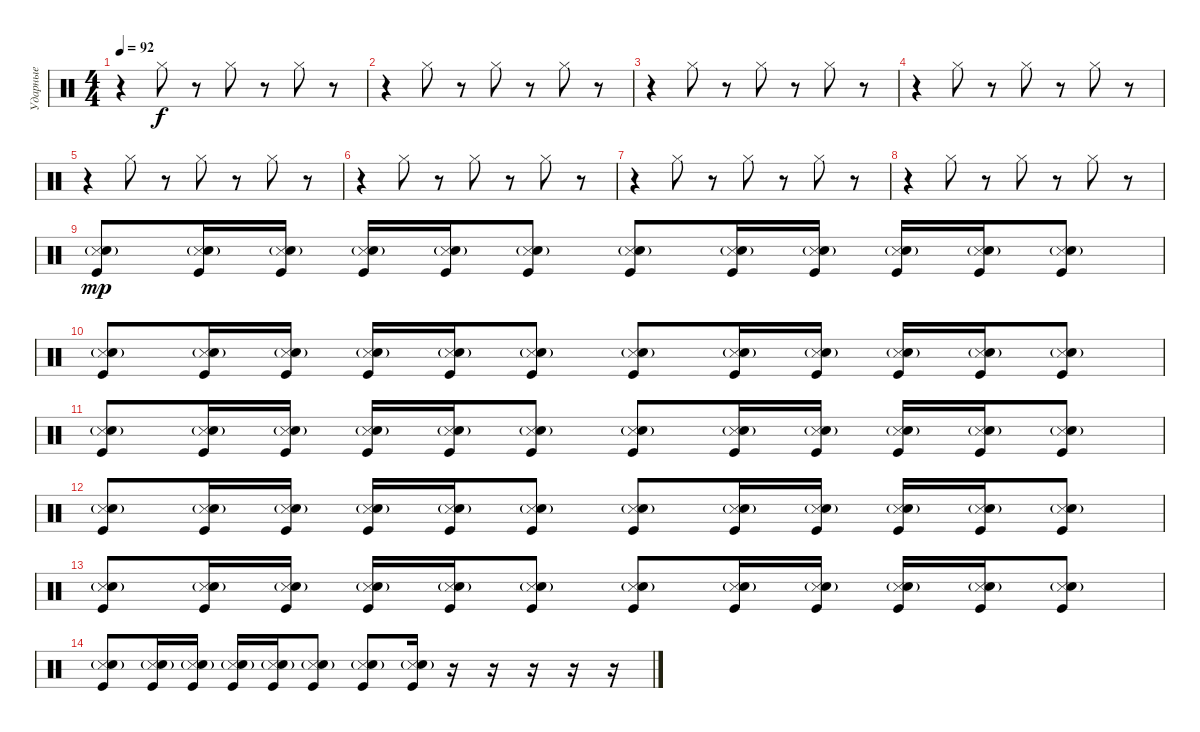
\track ("Ударные" "Ударные") {instrument percussion}
\staff {score}
\articulation defaults
\ts (4 4)
\tempo 92
\clef neutral
\ks c
r.4{dy f} "Hi-Hat (closed)".8 r.8 "Hi-Hat (closed)".8 r.8 "Hi-Hat (closed)".8 r.8 |
r.4 "Hi-Hat (closed)".8 r.8 "Hi-Hat (closed)".8 r.8 "Hi-Hat (closed)".8 r.8 |
r.4 "Hi-Hat (closed)".8 r.8 "Hi-Hat (closed)".8 r.8 "Hi-Hat (closed)".8 r.8 |
r.4 "Hi-Hat (closed)".8 r.8 "Hi-Hat (closed)".8 r.8 "Hi-Hat (closed)".8 r.8 |
r.4 "Hi-Hat (closed)".8 r.8 "Hi-Hat (closed)".8 r.8 "Hi-Hat (closed)".8 r.8 |
r.4 "Hi-Hat (closed)".8 r.8 "Hi-Hat (closed)".8 r.8 "Hi-Hat (closed)".8 r.8 |
r.4 "Hi-Hat (closed)".8 r.8 "Hi-Hat (closed)".8 r.8 "Hi-Hat (closed)".8 r.8 |
r.4 "Hi-Hat (closed)".8 r.8 "Hi-Hat (closed)".8 r.8 "Hi-Hat (closed)".8 r.8 |
("Snare (side stick) 3" "Snare (hit) 2"{g} "Kick (hit)").8{dy mp volume 13} ("Snare (side stick) 3" "Snare (hit) 2"{g} "Kick (hit)").16{volume 13} ("Snare (side stick) 3" "Snare (hit) 2"{g} "Kick (hit)").16{volume 13} ("Snare (side stick) 3" "Snare (hit) 2"{g} "Kick (hit)").16{volume 13} ("Snare (side stick) 3" "Snare (hit) 2"{g} "Kick (hit)").16{volume 13} ("Snare (side stick) 3" "Snare (hit) 2"{g} "Kick (hit)").8{volume 13} ("Snare (side stick) 3" "Snare (hit) 2"{g} "Kick (hit)").8{volume 13} ("Snare (side stick) 3" "Snare (hit) 2"{g} "Kick (hit)").16{volume 13} ("Snare (side stick) 3" "Snare (hit) 2"{g} "Kick (hit)").16{volume 13} ("Snare (side stick) 3" "Snare (hit) 2"{g} "Kick (hit)").16{volume 13} ("Snare (side stick) 3" "Snare (hit) 2"{g} "Kick (hit)").16{volume 13} ("Snare (side stick) 3" "Snare (hit) 2"{g} "Kick (hit)").8{volume 13} |
("Snare (side stick) 3" "Snare (hit) 2"{g} "Kick (hit)").8{volume 13} ("Snare (side stick) 3" "Snare (hit) 2"{g} "Kick (hit)").16{volume 13} ("Snare (side stick) 3" "Snare (hit) 2"{g} "Kick (hit)").16{volume 13} ("Snare (side stick) 3" "Snare (hit) 2"{g} "Kick (hit)").16{volume 13} ("Snare (side stick) 3" "Snare (hit) 2"{g} "Kick (hit)").16{volume 13} ("Snare (side stick) 3" "Snare (hit) 2"{g} "Kick (hit)").8{volume 13} ("Snare (side stick) 3" "Snare (hit) 2"{g} "Kick (hit)").8{volume 13} ("Snare (side stick) 3" "Snare (hit) 2"{g} "Kick (hit)").16{volume 13} ("Snare (side stick) 3" "Snare (hit) 2"{g} "Kick (hit)").16{volume 13} ("Snare (side stick) 3" "Snare (hit) 2"{g} "Kick (hit)").16{volume 13} ("Snare (side stick) 3" "Snare (hit) 2"{g} "Kick (hit)").16{volume 13} ("Snare (side stick) 3" "Snare (hit) 2"{g} "Kick (hit)").8{volume 13} |
("Snare (side stick) 3" "Snare (hit) 2"{g} "Kick (hit)").8{volume 13} ("Snare (side stick) 3" "Snare (hit) 2"{g} "Kick (hit)").16{volume 13} ("Snare (side stick) 3" "Snare (hit) 2"{g} "Kick (hit)").16{volume 13} ("Snare (side stick) 3" "Snare (hit) 2"{g} "Kick (hit)").16{volume 13} ("Snare (side stick) 3" "Snare (hit) 2"{g} "Kick (hit)").16{volume 13} ("Snare (side stick) 3" "Snare (hit) 2"{g} "Kick (hit)").8{volume 13} ("Snare (side stick) 3" "Snare (hit) 2"{g} "Kick (hit)").8{volume 13} ("Snare (side stick) 3" "Snare (hit) 2"{g} "Kick (hit)").16{volume 13} ("Snare (side stick) 3" "Snare (hit) 2"{g} "Kick (hit)").16{volume 13} ("Snare (side stick) 3" "Snare (hit) 2"{g} "Kick (hit)").16{volume 13} ("Snare (side stick) 3" "Snare (hit) 2"{g} "Kick (hit)").16{volume 13} ("Snare (side stick) 3" "Snare (hit) 2"{g} "Kick (hit)").8{volume 13} |
("Snare (side stick) 3" "Snare (hit) 2"{g} "Kick (hit)").8{volume 13} ("Snare (side stick) 3" "Snare (hit) 2"{g} "Kick (hit)").16{volume 13} ("Snare (side stick) 3" "Snare (hit) 2"{g} "Kick (hit)").16{volume 13} ("Snare (side stick) 3" "Snare (hit) 2"{g} "Kick (hit)").16{volume 13} ("Snare (side stick) 3" "Snare (hit) 2"{g} "Kick (hit)").16{volume 13} ("Snare (side stick) 3" "Snare (hit) 2"{g} "Kick (hit)").8{volume 13} ("Snare (side stick) 3" "Snare (hit) 2"{g} "Kick (hit)").8{volume 13} ("Snare (side stick) 3" "Snare (hit) 2"{g} "Kick (hit)").16{volume 13} ("Snare (side stick) 3" "Snare (hit) 2"{g} "Kick (hit)").16{volume 13} ("Snare (side stick) 3" "Snare (hit) 2"{g} "Kick (hit)").16{volume 13} ("Snare (side stick) 3" "Snare (hit) 2"{g} "Kick (hit)").16{volume 13} ("Snare (side stick) 3" "Snare (hit) 2"{g} "Kick (hit)").8{volume 13} |
("Snare (side stick) 3" "Snare (hit) 2"{g} "Kick (hit)").8{volume 13} ("Snare (side stick) 3" "Snare (hit) 2"{g} "Kick (hit)").16{volume 13} ("Snare (side stick) 3" "Snare (hit) 2"{g} "Kick (hit)").16{volume 13} ("Snare (side stick) 3" "Snare (hit) 2"{g} "Kick (hit)").16{volume 13} ("Snare (side stick) 3" "Snare (hit) 2"{g} "Kick (hit)").16{volume 13} ("Snare (side stick) 3" "Snare (hit) 2"{g} "Kick (hit)").8{volume 13} ("Snare (side stick) 3" "Snare (hit) 2"{g} "Kick (hit)").8{volume 13} ("Snare (side stick) 3" "Snare (hit) 2"{g} "Kick (hit)").16{volume 13} ("Snare (side stick) 3" "Snare (hit) 2"{g} "Kick (hit)").16{volume 13} ("Snare (side stick) 3" "Snare (hit) 2"{g} "Kick (hit)").16{volume 13} ("Snare (side stick) 3" "Snare (hit) 2"{g} "Kick (hit)").16{volume 13} ("Snare (side stick) 3" "Snare (hit) 2"{g} "Kick (hit)").8{volume 13} |
("Snare (side stick) 3" "Snare (hit) 2"{g} "Kick (hit)").8{volume 13} ("Snare (side stick) 3" "Snare (hit) 2"{g} "Kick (hit)").16{volume 13} ("Snare (side stick) 3" "Snare (hit) 2"{g} "Kick (hit)").16{volume 13} ("Snare (side stick) 3" "Snare (hit) 2"{g} "Kick (hit)").16{volume 13} ("Snare (side stick) 3" "Snare (hit) 2"{g} "Kick (hit)").16{volume 13} ("Snare (side stick) 3" "Snare (hit) 2"{g} "Kick (hit)").8{volume 13} ("Snare (side stick) 3" "Snare (hit) 2"{g} "Kick (hit)").8{volume 13} ("Snare (side stick) 3" "Snare (hit) 2"{g} "Kick (hit)").16{volume 13} r.16 r.16 r.16 r.16 r.16
